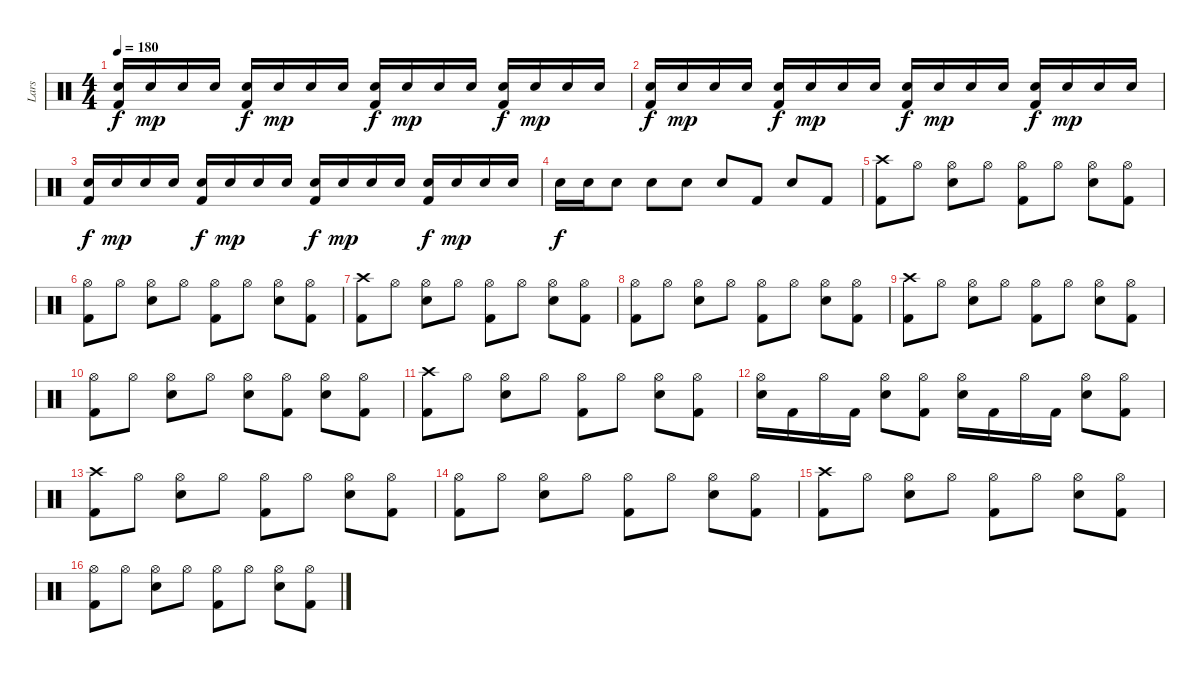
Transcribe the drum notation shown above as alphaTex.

\track ("Lars" "Lars") {instrument percussion}
\staff {score}
\articulation defaults
\ts (4 4)
\tempo 180
\clef neutral
\ks c
("Snare (hit) 2" "Kick (hit) 2").16{dy f} "Snare (hit) 2".16{dy mp} "Snare (hit) 2".16 "Snare (hit) 2".16 ("Snare (hit) 2" "Kick (hit) 2").16{dy f} "Snare (hit) 2".16{dy mp} "Snare (hit) 2".16 "Snare (hit) 2".16 ("Snare (hit) 2" "Kick (hit) 2").16{dy f} "Snare (hit) 2".16{dy mp} "Snare (hit) 2".16 "Snare (hit) 2".16 ("Snare (hit) 2" "Kick (hit) 2").16{dy f} "Snare (hit) 2".16{dy mp} "Snare (hit) 2".16 "Snare (hit) 2".16 |
("Snare (hit) 2" "Kick (hit) 2").16{dy f} "Snare (hit) 2".16{dy mp} "Snare (hit) 2".16 "Snare (hit) 2".16 ("Snare (hit) 2" "Kick (hit) 2").16{dy f} "Snare (hit) 2".16{dy mp} "Snare (hit) 2".16 "Snare (hit) 2".16 ("Snare (hit) 2" "Kick (hit) 2").16{dy f} "Snare (hit) 2".16{dy mp} "Snare (hit) 2".16 "Snare (hit) 2".16 ("Snare (hit) 2" "Kick (hit) 2").16{dy f} "Snare (hit) 2".16{dy mp} "Snare (hit) 2".16 "Snare (hit) 2".16 |
("Snare (hit) 2" "Kick (hit) 2").16{dy f} "Snare (hit) 2".16{dy mp} "Snare (hit) 2".16 "Snare (hit) 2".16 ("Snare (hit) 2" "Kick (hit) 2").16{dy f} "Snare (hit) 2".16{dy mp} "Snare (hit) 2".16 "Snare (hit) 2".16 ("Snare (hit) 2" "Kick (hit) 2").16{dy f} "Snare (hit) 2".16{dy mp} "Snare (hit) 2".16 "Snare (hit) 2".16 ("Snare (hit) 2" "Kick (hit) 2").16{dy f} "Snare (hit) 2".16{dy mp} "Snare (hit) 2".16 "Snare (hit) 2".16 |
"Snare (hit) 2".16{dy f} "Snare (hit) 2".16 "Snare (hit) 2".8 "Snare (hit) 2".8 "Snare (hit) 2".8 "Snare (hit) 2".8 "Kick (hit) 2".8 "Snare (hit) 2".8 "Kick (hit) 2".8 |
("Kick (hit) 2" "Crash high (hit)").8 "Hi-Hat (open)".8 ("Snare (hit) 2" "Hi-Hat (open)").8 "Hi-Hat (open)".8 ("Kick (hit) 2" "Hi-Hat (open)").8 "Hi-Hat (open)".8 ("Snare (hit) 2" "Hi-Hat (open)").8 ("Kick (hit) 2" "Hi-Hat (open)").8 |
("Kick (hit) 2" "Hi-Hat (open)").8 "Hi-Hat (open)".8 ("Snare (hit) 2" "Hi-Hat (open)").8 "Hi-Hat (open)".8 ("Kick (hit) 2" "Hi-Hat (open)").8 "Hi-Hat (open)".8 ("Snare (hit) 2" "Hi-Hat (open)").8 ("Kick (hit) 2" "Hi-Hat (open)").8 |
("Kick (hit) 2" "Crash high (hit)").8 "Hi-Hat (open)".8 ("Snare (hit) 2" "Hi-Hat (open)").8 "Hi-Hat (open)".8 ("Kick (hit) 2" "Hi-Hat (open)").8 "Hi-Hat (open)".8 ("Snare (hit) 2" "Hi-Hat (open)").8 ("Kick (hit) 2" "Hi-Hat (open)").8 |
("Kick (hit) 2" "Hi-Hat (open)").8 "Hi-Hat (open)".8 ("Snare (hit) 2" "Hi-Hat (open)").8 "Hi-Hat (open)".8 ("Kick (hit) 2" "Hi-Hat (open)").8 "Hi-Hat (open)".8 ("Snare (hit) 2" "Hi-Hat (open)").8 ("Kick (hit) 2" "Hi-Hat (open)").8 |
("Kick (hit) 2" "Crash high (hit)").8 "Hi-Hat (open)".8 ("Snare (hit) 2" "Hi-Hat (open)").8 "Hi-Hat (open)".8 ("Kick (hit) 2" "Hi-Hat (open)").8 "Hi-Hat (open)".8 ("Snare (hit) 2" "Hi-Hat (open)").8 ("Kick (hit) 2" "Hi-Hat (open)").8 |
("Kick (hit) 2" "Hi-Hat (open)").8 "Hi-Hat (open)".8 ("Snare (hit) 2" "Hi-Hat (open)").8 "Hi-Hat (open)".8 ("Snare (hit) 2" "Hi-Hat (open)").8 ("Kick (hit) 2" "Hi-Hat (open)").8 ("Snare (hit) 2" "Hi-Hat (open)").8 ("Kick (hit) 2" "Hi-Hat (open)").8 |
("Kick (hit) 2" "Crash high (hit)").8 "Hi-Hat (open)".8 ("Snare (hit) 2" "Hi-Hat (open)").8 "Hi-Hat (open)".8 ("Kick (hit) 2" "Hi-Hat (open)").8 "Hi-Hat (open)".8 ("Snare (hit) 2" "Hi-Hat (open)").8 ("Kick (hit) 2" "Hi-Hat (open)").8 |
("Snare (hit) 2" "Hi-Hat (open)").16 "Kick (hit) 2".16 "Hi-Hat (open)".16 "Kick (hit) 2".16 ("Snare (hit) 2" "Hi-Hat (open)").8 ("Kick (hit) 2" "Hi-Hat (open)").8 ("Snare (hit) 2" "Hi-Hat (open)").16 "Kick (hit) 2".16 "Hi-Hat (open)".16 "Kick (hit) 2".16 ("Snare (hit) 2" "Hi-Hat (open)").8 ("Kick (hit) 2" "Hi-Hat (open)").8 |
("Kick (hit) 2" "Crash high (hit)").8 "Hi-Hat (open)".8 ("Snare (hit) 2" "Hi-Hat (open)").8 "Hi-Hat (open)".8 ("Kick (hit) 2" "Hi-Hat (open)").8 "Hi-Hat (open)".8 ("Snare (hit) 2" "Hi-Hat (open)").8 ("Kick (hit) 2" "Hi-Hat (open)").8 |
("Kick (hit) 2" "Hi-Hat (open)").8 "Hi-Hat (open)".8 ("Snare (hit) 2" "Hi-Hat (open)").8 "Hi-Hat (open)".8 ("Kick (hit) 2" "Hi-Hat (open)").8 "Hi-Hat (open)".8 ("Snare (hit) 2" "Hi-Hat (open)").8 ("Kick (hit) 2" "Hi-Hat (open)").8 |
("Kick (hit) 2" "Crash high (hit)").8 "Hi-Hat (open)".8 ("Snare (hit) 2" "Hi-Hat (open)").8 "Hi-Hat (open)".8 ("Kick (hit) 2" "Hi-Hat (open)").8 "Hi-Hat (open)".8 ("Snare (hit) 2" "Hi-Hat (open)").8 ("Kick (hit) 2" "Hi-Hat (open)").8 |
("Kick (hit) 2" "Hi-Hat (open)").8 "Hi-Hat (open)".8 ("Snare (hit) 2" "Hi-Hat (open)").8 "Hi-Hat (open)".8 ("Kick (hit) 2" "Hi-Hat (open)").8 "Hi-Hat (open)".8 ("Snare (hit) 2" "Hi-Hat (open)").8 ("Kick (hit) 2" "Hi-Hat (open)").8
